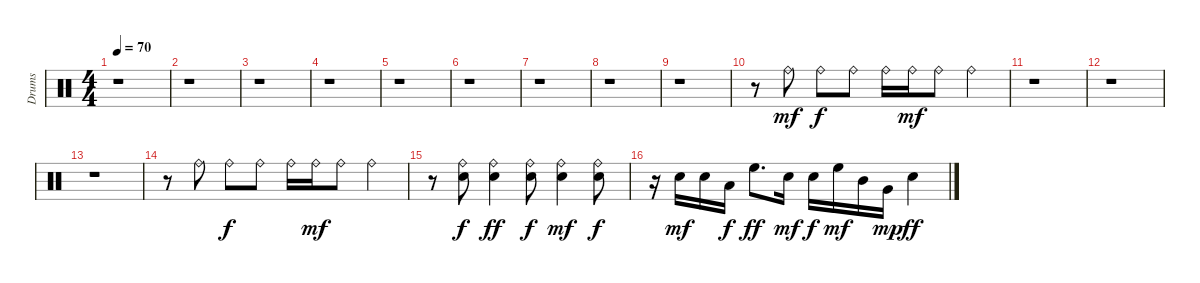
\track ("Drums" "Drums") {instrument percussion}
\staff {score}
\articulation defaults
\ts (4 4)
\tempo 70
\clef neutral
\ks c
r.1{dy mf} |
r.1 |
r.1 |
r.1 |
r.1 |
r.1 |
r.1 |
r.1 |
r.1 |
r.8 "Ride (bell)".8 "Ride (bell)".8{dy f} "Ride (bell)".8 "Ride (bell)".16 "Ride (bell)".16{dy mf} "Ride (bell)".8 "Ride (bell)".4 |
r.1 |
r.1 |
r.1 |
r.8 "Ride (bell)".8 "Ride (bell)".8{dy f} "Ride (bell)".8 "Ride (bell)".16 "Ride (bell)".16{dy mf} "Ride (bell)".8 "Ride (bell)".4 |
r.8 ("Ride (bell)" "Electric Snare (hit)").8{dy f} ("Ride (bell)" "Electric Snare (hit)").4{dy ff} ("Ride (bell)" "Electric Snare (hit)").8{dy f} ("Ride (bell)" "Electric Snare (hit)").4{dy mf} ("Ride (bell)" "Electric Snare (hit)").8{dy f} |
r.16 "Electric Snare (hit)".16{dy mf} "Electric Snare (hit)".16 "Low Tom (hit)".16{dy f} "High Floor Tom (hit)".8{d dy ff} "Electric Snare (hit)".16{dy mf} "Electric Snare (hit)".16{dy f} "High Floor Tom (hit)".16{dy mf} "Mid Tom (hit)".16 "Very Low Tom (hit)".16{dy mp} "Electric Snare (hit)".4{dy ff}
